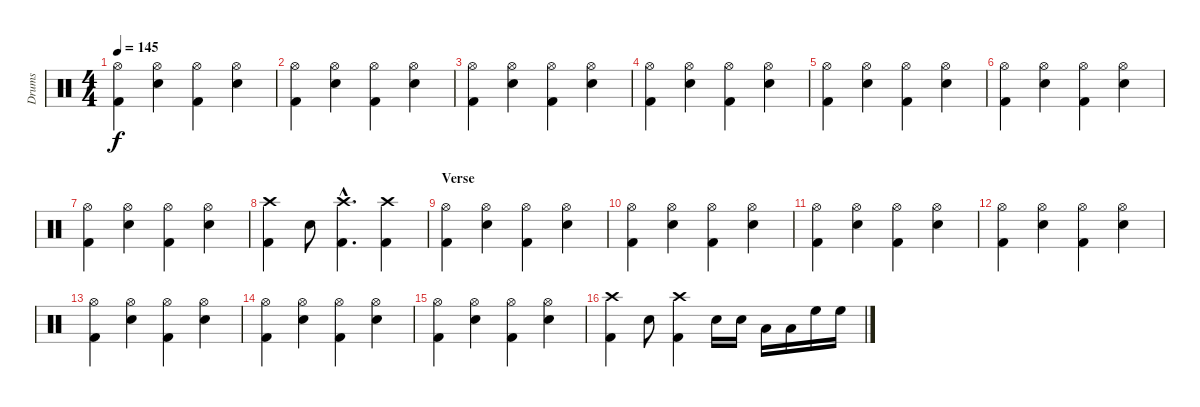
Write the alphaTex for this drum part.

\track ("Drums" "Drums") {instrument percussion}
\staff {score}
\articulation defaults
\ts (4 4)
\tempo 145
\clef neutral
\ks c
("Hi-Hat (open)" "Kick (hit) 2").4{dy f} ("Hi-Hat (open)" "Electric Snare (hit)").4 ("Hi-Hat (open)" "Kick (hit) 2").4 ("Hi-Hat (open)" "Electric Snare (hit)").4 |
("Hi-Hat (open)" "Kick (hit) 2").4 ("Hi-Hat (open)" "Electric Snare (hit)").4 ("Hi-Hat (open)" "Kick (hit) 2").4 ("Hi-Hat (open)" "Electric Snare (hit)").4 |
("Hi-Hat (open)" "Kick (hit) 2").4 ("Hi-Hat (open)" "Electric Snare (hit)").4 ("Hi-Hat (open)" "Kick (hit) 2").4 ("Hi-Hat (open)" "Electric Snare (hit)").4 |
("Hi-Hat (open)" "Kick (hit) 2").4 ("Hi-Hat (open)" "Electric Snare (hit)").4 ("Hi-Hat (open)" "Kick (hit) 2").4 ("Hi-Hat (open)" "Electric Snare (hit)").4 |
("Hi-Hat (open)" "Kick (hit) 2").4 ("Hi-Hat (open)" "Electric Snare (hit)").4 ("Hi-Hat (open)" "Kick (hit) 2").4 ("Hi-Hat (open)" "Electric Snare (hit)").4 |
("Hi-Hat (open)" "Kick (hit) 2").4 ("Hi-Hat (open)" "Electric Snare (hit)").4 ("Hi-Hat (open)" "Kick (hit) 2").4 ("Hi-Hat (open)" "Electric Snare (hit)").4 |
("Hi-Hat (open)" "Kick (hit) 2").4 ("Hi-Hat (open)" "Electric Snare (hit)").4 ("Hi-Hat (open)" "Kick (hit) 2").4 ("Hi-Hat (open)" "Electric Snare (hit)").4 |
("Crash high (hit)" "Kick (hit) 2").4 "Electric Snare (hit)".8 ("Crash high (hit)"{hac} "Kick (hit) 2"{hac}).4{d} ("Crash high (hit)" "Kick (hit) 2").4 |
\section ("" "Verse")
("Hi-Hat (open)" "Kick (hit) 2").4 ("Hi-Hat (open)" "Electric Snare (hit)").4 ("Hi-Hat (open)" "Kick (hit) 2").4 ("Hi-Hat (open)" "Electric Snare (hit)").4 |
("Hi-Hat (open)" "Kick (hit) 2").4 ("Hi-Hat (open)" "Electric Snare (hit)").4 ("Hi-Hat (open)" "Kick (hit) 2").4 ("Hi-Hat (open)" "Electric Snare (hit)").4 |
("Hi-Hat (open)" "Kick (hit) 2").4 ("Hi-Hat (open)" "Electric Snare (hit)").4 ("Hi-Hat (open)" "Kick (hit) 2").4 ("Hi-Hat (open)" "Electric Snare (hit)").4 |
("Hi-Hat (open)" "Kick (hit) 2").4 ("Hi-Hat (open)" "Electric Snare (hit)").4 ("Hi-Hat (open)" "Kick (hit) 2").4 ("Hi-Hat (open)" "Electric Snare (hit)").4 |
("Hi-Hat (open)" "Kick (hit) 2").4 ("Hi-Hat (open)" "Electric Snare (hit)").4 ("Hi-Hat (open)" "Kick (hit) 2").4 ("Hi-Hat (open)" "Electric Snare (hit)").4 |
("Hi-Hat (open)" "Kick (hit) 2").4 ("Hi-Hat (open)" "Electric Snare (hit)").4 ("Hi-Hat (open)" "Kick (hit) 2").4 ("Hi-Hat (open)" "Electric Snare (hit)").4 |
("Hi-Hat (open)" "Kick (hit) 2").4 ("Hi-Hat (open)" "Electric Snare (hit)").4 ("Hi-Hat (open)" "Kick (hit) 2").4 ("Hi-Hat (open)" "Electric Snare (hit)").4 |
("Crash high (hit)" "Kick (hit) 2").4 "Electric Snare (hit)".8 ("Crash high (hit)" "Kick (hit) 2").4 "Electric Snare (hit)".16 "Electric Snare (hit)".16 "Low Tom (hit)".16 "Low Tom (hit)".16 "High Floor Tom (hit)".16 "High Floor Tom (hit)".16
